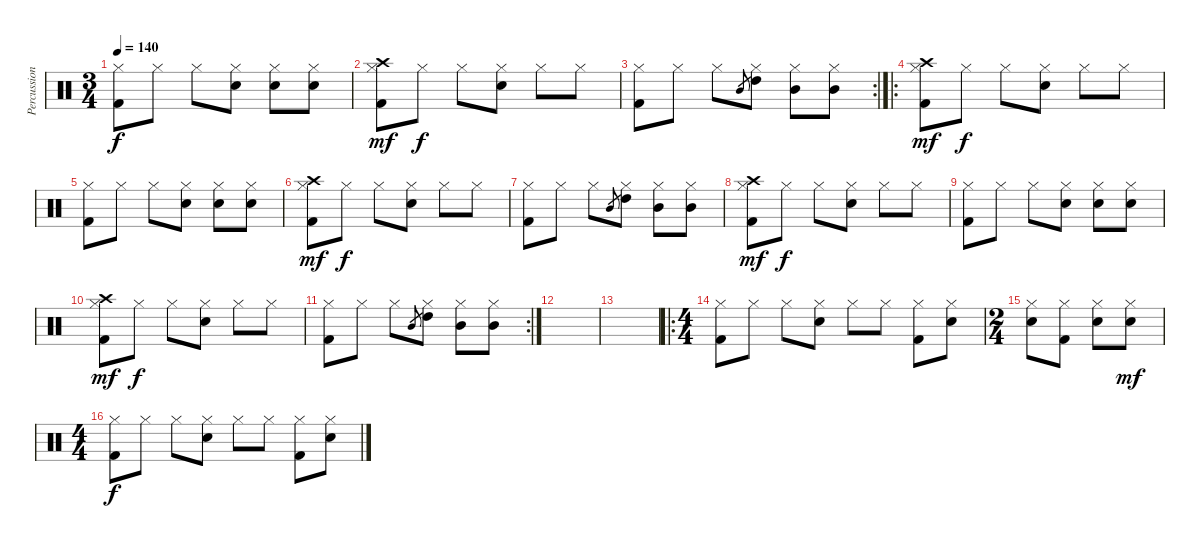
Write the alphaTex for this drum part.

\track ("Percussion" "Percussion") {instrument percussion}
\staff {score}
\articulation defaults
\ts (3 4)
\tempo 140
\clef neutral
\ks c
("Hi-Hat (closed)" "Kick (hit) 2").8{dy f} "Hi-Hat (closed)".8 "Hi-Hat (closed)".8 ("Hi-Hat (closed)" "Electric Snare (hit)").8 ("Hi-Hat (closed)" "Electric Snare (hit)").8 ("Hi-Hat (closed)" "Electric Snare (hit)").8 |
("Crash high (hit)" "Hi-Hat (closed)" "Kick (hit) 2").8{dy mf} "Hi-Hat (closed)".8{dy f} "Hi-Hat (closed)".8 ("Hi-Hat (closed)" "Electric Snare (hit)").8 "Hi-Hat (closed)".8 "Hi-Hat (closed)".8 |
\rc 2
("Hi-Hat (closed)" "Kick (hit) 2").8 "Hi-Hat (closed)".8 "Hi-Hat (closed)".8 "Mid Tom (hit)".8{gr} ("Hi-Hat (closed)" "High Tom (hit)").8 ("Hi-Hat (closed)" "Mid Tom (hit)").8 ("Hi-Hat (closed)" "Mid Tom (hit)").8 |
\ro
("Crash high (hit)" "Hi-Hat (closed)" "Kick (hit) 2").8{dy mf} "Hi-Hat (closed)".8{dy f} "Hi-Hat (closed)".8 ("Hi-Hat (closed)" "Electric Snare (hit)").8 "Hi-Hat (closed)".8 "Hi-Hat (closed)".8 |
("Hi-Hat (closed)" "Kick (hit) 2").8 "Hi-Hat (closed)".8 "Hi-Hat (closed)".8 ("Hi-Hat (closed)" "Electric Snare (hit)").8 ("Hi-Hat (closed)" "Electric Snare (hit)").8 ("Hi-Hat (closed)" "Electric Snare (hit)").8 |
("Crash high (hit)" "Hi-Hat (closed)" "Kick (hit) 2").8{dy mf} "Hi-Hat (closed)".8{dy f} "Hi-Hat (closed)".8 ("Hi-Hat (closed)" "Electric Snare (hit)").8 "Hi-Hat (closed)".8 "Hi-Hat (closed)".8 |
("Hi-Hat (closed)" "Kick (hit) 2").8 "Hi-Hat (closed)".8 "Hi-Hat (closed)".8 "Mid Tom (hit)".8{gr} ("Hi-Hat (closed)" "High Tom (hit)").8 ("Hi-Hat (closed)" "Mid Tom (hit)").8 ("Hi-Hat (closed)" "Mid Tom (hit)").8 |
("Crash high (hit)" "Hi-Hat (closed)" "Kick (hit) 2").8{dy mf} "Hi-Hat (closed)".8{dy f} "Hi-Hat (closed)".8 ("Hi-Hat (closed)" "Electric Snare (hit)").8 "Hi-Hat (closed)".8 "Hi-Hat (closed)".8 |
("Hi-Hat (closed)" "Kick (hit) 2").8 "Hi-Hat (closed)".8 "Hi-Hat (closed)".8 ("Hi-Hat (closed)" "Electric Snare (hit)").8 ("Hi-Hat (closed)" "Electric Snare (hit)").8 ("Hi-Hat (closed)" "Electric Snare (hit)").8 |
("Crash high (hit)" "Hi-Hat (closed)" "Kick (hit) 2").8{dy mf} "Hi-Hat (closed)".8{dy f} "Hi-Hat (closed)".8 ("Hi-Hat (closed)" "Electric Snare (hit)").8 "Hi-Hat (closed)".8 "Hi-Hat (closed)".8 |
\rc 2
("Hi-Hat (closed)" "Kick (hit) 2").8 "Hi-Hat (closed)".8 "Hi-Hat (closed)".8 "Mid Tom (hit)".8{gr} ("Hi-Hat (closed)" "High Tom (hit)").8 ("Hi-Hat (closed)" "Mid Tom (hit)").8 ("Hi-Hat (closed)" "Mid Tom (hit)").8 |
|
|
\ro
\ts (4 4)
("Hi-Hat (closed)" "Kick (hit) 2").8 "Hi-Hat (closed)".8 "Hi-Hat (closed)".8 ("Hi-Hat (closed)" "Electric Snare (hit)").8 "Hi-Hat (closed)".8 "Hi-Hat (closed)".8 ("Hi-Hat (closed)" "Kick (hit) 2").8 ("Hi-Hat (closed)" "Electric Snare (hit)").8 |
\ts (2 4)
("Hi-Hat (closed)" "Electric Snare (hit)").8 ("Hi-Hat (closed)" "Kick (hit) 2").8 ("Hi-Hat (closed)" "Electric Snare (hit)").8 ("Hi-Hat (closed)" "Electric Snare (hit)").8{dy mf} |
\ts (4 4)
("Hi-Hat (closed)" "Kick (hit) 2").8{dy f} "Hi-Hat (closed)".8 "Hi-Hat (closed)".8 ("Hi-Hat (closed)" "Electric Snare (hit)").8 "Hi-Hat (closed)".8 "Hi-Hat (closed)".8 ("Hi-Hat (closed)" "Kick (hit) 2").8 ("Hi-Hat (closed)" "Electric Snare (hit)").8
